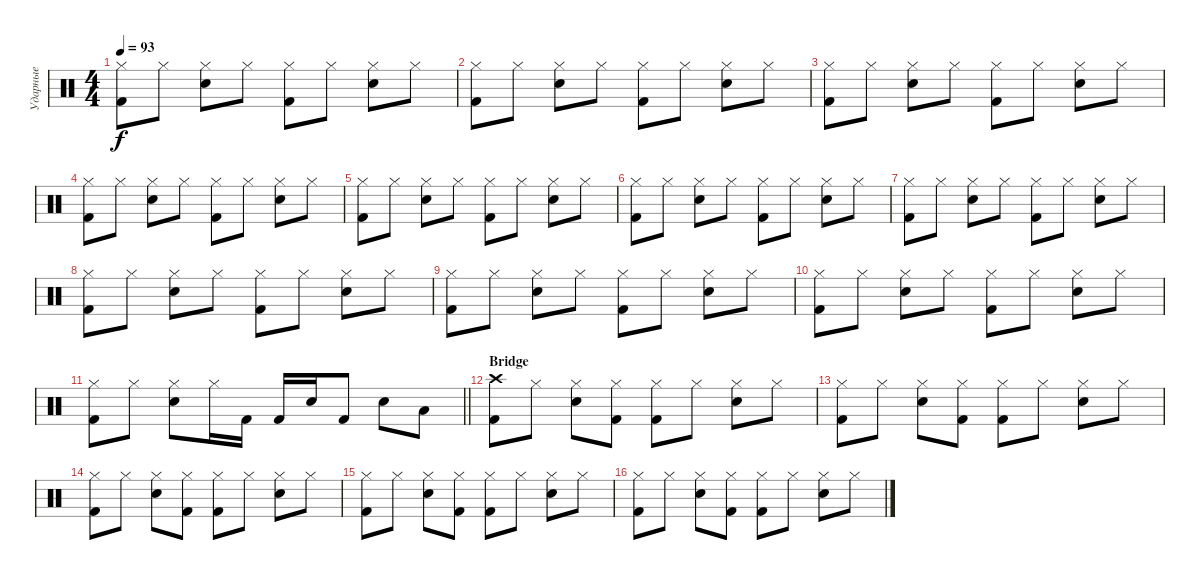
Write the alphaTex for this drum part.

\track ("Ударные" "Ударные") {instrument percussion}
\staff
\articulation defaults
\ts (4 4)
\tempo 93
\clef neutral
\ks c
("Hi-Hat (closed)" "Kick (hit) 2").8{dy f} "Hi-Hat (closed)".8 ("Hi-Hat (closed)" "Electric Snare (hit)").8 "Hi-Hat (closed)".8 ("Hi-Hat (closed)" "Kick (hit) 2").8 "Hi-Hat (closed)".8 ("Hi-Hat (closed)" "Electric Snare (hit)").8 "Hi-Hat (closed)".8 |
("Hi-Hat (closed)" "Kick (hit) 2").8 "Hi-Hat (closed)".8 ("Hi-Hat (closed)" "Electric Snare (hit)").8 "Hi-Hat (closed)".8 ("Hi-Hat (closed)" "Kick (hit) 2").8 "Hi-Hat (closed)".8 ("Hi-Hat (closed)" "Electric Snare (hit)").8 "Hi-Hat (closed)".8 |
("Hi-Hat (closed)" "Kick (hit) 2").8 "Hi-Hat (closed)".8 ("Hi-Hat (closed)" "Electric Snare (hit)").8 "Hi-Hat (closed)".8 ("Hi-Hat (closed)" "Kick (hit) 2").8 "Hi-Hat (closed)".8 ("Hi-Hat (closed)" "Electric Snare (hit)").8 "Hi-Hat (closed)".8 |
("Hi-Hat (closed)" "Kick (hit) 2").8 "Hi-Hat (closed)".8 ("Hi-Hat (closed)" "Electric Snare (hit)").8 "Hi-Hat (closed)".8 ("Hi-Hat (closed)" "Kick (hit) 2").8 "Hi-Hat (closed)".8 ("Hi-Hat (closed)" "Electric Snare (hit)").8 "Hi-Hat (closed)".8 |
("Hi-Hat (closed)" "Kick (hit) 2").8 "Hi-Hat (closed)".8 ("Hi-Hat (closed)" "Electric Snare (hit)").8 "Hi-Hat (closed)".8 ("Hi-Hat (closed)" "Kick (hit) 2").8 "Hi-Hat (closed)".8 ("Hi-Hat (closed)" "Electric Snare (hit)").8 "Hi-Hat (closed)".8 |
("Hi-Hat (closed)" "Kick (hit) 2").8 "Hi-Hat (closed)".8 ("Hi-Hat (closed)" "Electric Snare (hit)").8 "Hi-Hat (closed)".8 ("Hi-Hat (closed)" "Kick (hit) 2").8 "Hi-Hat (closed)".8 ("Hi-Hat (closed)" "Electric Snare (hit)").8 "Hi-Hat (closed)".8 |
("Hi-Hat (closed)" "Kick (hit) 2").8 "Hi-Hat (closed)".8 ("Hi-Hat (closed)" "Electric Snare (hit)").8 "Hi-Hat (closed)".8 ("Hi-Hat (closed)" "Kick (hit) 2").8 "Hi-Hat (closed)".8 ("Hi-Hat (closed)" "Electric Snare (hit)").8 "Hi-Hat (closed)".8 |
("Hi-Hat (closed)" "Kick (hit) 2").8 "Hi-Hat (closed)".8 ("Hi-Hat (closed)" "Electric Snare (hit)").8 "Hi-Hat (closed)".8 ("Hi-Hat (closed)" "Kick (hit) 2").8 "Hi-Hat (closed)".8 ("Hi-Hat (closed)" "Electric Snare (hit)").8 "Hi-Hat (closed)".8 |
("Hi-Hat (closed)" "Kick (hit) 2").8 "Hi-Hat (closed)".8 ("Hi-Hat (closed)" "Electric Snare (hit)").8 "Hi-Hat (closed)".8 ("Hi-Hat (closed)" "Kick (hit) 2").8 "Hi-Hat (closed)".8 ("Hi-Hat (closed)" "Electric Snare (hit)").8 "Hi-Hat (closed)".8 |
("Hi-Hat (closed)" "Kick (hit) 2").8 "Hi-Hat (closed)".8 ("Hi-Hat (closed)" "Electric Snare (hit)").8 "Hi-Hat (closed)".8 ("Hi-Hat (closed)" "Kick (hit) 2").8 "Hi-Hat (closed)".8 ("Hi-Hat (closed)" "Electric Snare (hit)").8 "Hi-Hat (closed)".8 |
\barLineRight lightlight
("Hi-Hat (closed)" "Kick (hit) 2").8 "Hi-Hat (closed)".8 ("Hi-Hat (closed)" "Electric Snare (hit)").8 "Hi-Hat (closed)".16 "Kick (hit) 2".16 "Kick (hit) 2".16 "Electric Snare (hit)".16 "Kick (hit) 2".8 "Electric Snare (hit)".8 "Low Tom (hit)".8 |
\section ("" "Bridge")
("Crash high (hit)" "Kick (hit) 2").8 "Hi-Hat (closed)".8 ("Hi-Hat (closed)" "Electric Snare (hit)").8 ("Hi-Hat (closed)" "Kick (hit) 2").8 ("Hi-Hat (closed)" "Kick (hit) 2").8 "Hi-Hat (closed)".8 ("Hi-Hat (closed)" "Electric Snare (hit)").8 "Hi-Hat (closed)".8 |
("Hi-Hat (closed)" "Kick (hit) 2").8 "Hi-Hat (closed)".8 ("Hi-Hat (closed)" "Electric Snare (hit)").8 ("Hi-Hat (closed)" "Kick (hit) 2").8 ("Hi-Hat (closed)" "Kick (hit) 2").8 "Hi-Hat (closed)".8 ("Hi-Hat (closed)" "Electric Snare (hit)").8 "Hi-Hat (closed)".8 |
("Hi-Hat (closed)" "Kick (hit) 2").8 "Hi-Hat (closed)".8 ("Hi-Hat (closed)" "Electric Snare (hit)").8 ("Hi-Hat (closed)" "Kick (hit) 2").8 ("Hi-Hat (closed)" "Kick (hit) 2").8 "Hi-Hat (closed)".8 ("Hi-Hat (closed)" "Electric Snare (hit)").8 "Hi-Hat (closed)".8 |
("Hi-Hat (closed)" "Kick (hit) 2").8 "Hi-Hat (closed)".8 ("Hi-Hat (closed)" "Electric Snare (hit)").8 ("Hi-Hat (closed)" "Kick (hit) 2").8 ("Hi-Hat (closed)" "Kick (hit) 2").8 "Hi-Hat (closed)".8 ("Hi-Hat (closed)" "Electric Snare (hit)").8 "Hi-Hat (closed)".8 |
("Hi-Hat (closed)" "Kick (hit) 2").8 "Hi-Hat (closed)".8 ("Hi-Hat (closed)" "Electric Snare (hit)").8 ("Hi-Hat (closed)" "Kick (hit) 2").8 ("Hi-Hat (closed)" "Kick (hit) 2").8 "Hi-Hat (closed)".8 ("Hi-Hat (closed)" "Electric Snare (hit)").8 "Hi-Hat (closed)".8
